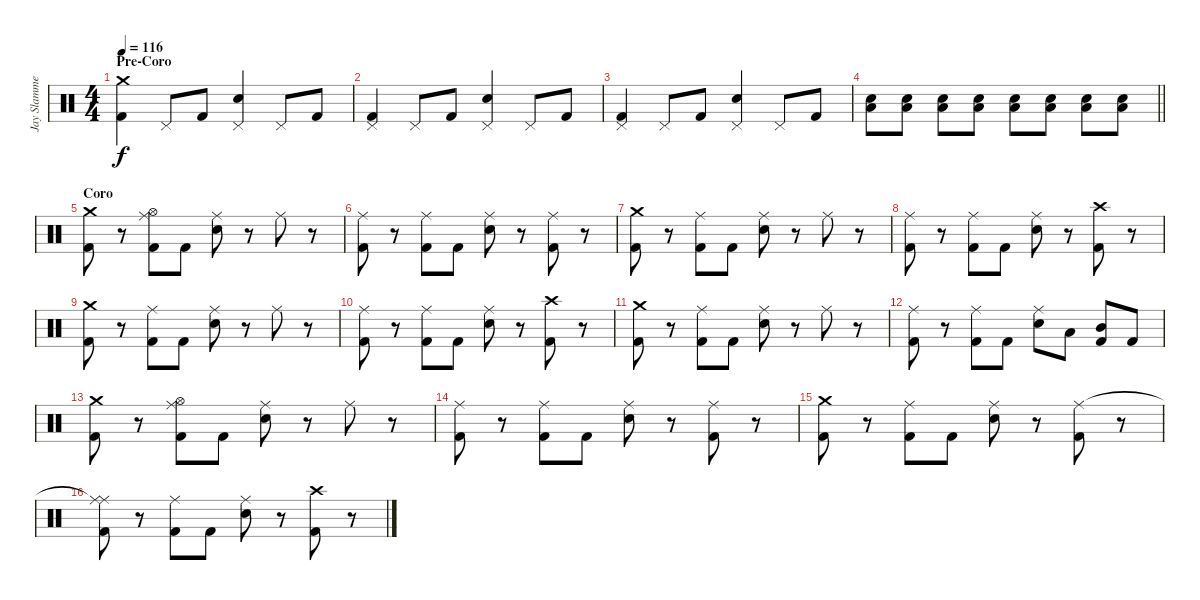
\track ("Jay Slammer " "Jay Slamme") {instrument percussion}
\staff {score}
\articulation defaults
\ts (4 4)
\section ("" "Pre-Coro")
\tempo 116
\clef neutral
\ks c
("Crash medium (hit)" "Kick (hit) 2").4{dy f} "Pedal Hi-Hat (hit)".8 "Kick (hit) 2".8 ("Pedal Hi-Hat (hit)" "Snare (hit) 2").4 "Pedal Hi-Hat (hit)".8 "Kick (hit) 2".8 |
("Pedal Hi-Hat (hit)" "Kick (hit) 2").4 "Pedal Hi-Hat (hit)".8 "Kick (hit) 2".8 ("Pedal Hi-Hat (hit)" "Snare (hit) 2").4 "Pedal Hi-Hat (hit)".8 "Kick (hit) 2".8 |
("Pedal Hi-Hat (hit)" "Kick (hit) 2").4 "Pedal Hi-Hat (hit)".8 "Kick (hit) 2".8 ("Pedal Hi-Hat (hit)" "Snare (hit) 2").4 "Pedal Hi-Hat (hit)".8 "Kick (hit) 2".8 |
\barLineRight lightlight
("Low Tom (hit)" "Snare (hit) 2").8 ("Low Tom (hit)" "Snare (hit) 2").8 ("Low Tom (hit)" "Snare (hit) 2").8 ("Low Tom (hit)" "Snare (hit) 2").8 ("Low Tom (hit)" "Snare (hit) 2").8 ("Low Tom (hit)" "Snare (hit) 2").8 ("Low Tom (hit)" "Snare (hit) 2").8 ("Low Tom (hit)" "Snare (hit) 2").8 |
\section ("" "Coro")
("Crash medium (hit)" "Kick (hit) 2").8 r.8 ("Hi-Hat (open)" "Ride (middle)" "Kick (hit) 2").8 "Kick (hit) 2".8 ("Ride (middle)" "Snare (hit) 2").8 r.8 "Ride (middle)".8 r.8 |
("Ride (middle)" "Kick (hit) 2").8 r.8 ("Ride (middle)" "Kick (hit) 2").8 "Kick (hit) 2".8 ("Ride (middle)" "Snare (hit) 2").8 r.8 ("Ride (middle)" "Kick (hit) 2").8 r.8 |
("Crash medium (hit)" "Kick (hit) 2").8 r.8 ("Ride (middle)" "Kick (hit) 2").8 "Kick (hit) 2".8 ("Ride (middle)" "Snare (hit) 2").8 r.8 "Ride (middle)".8 r.8 |
("Ride (middle)" "Kick (hit) 2").8 r.8 ("Ride (middle)" "Kick (hit) 2").8 "Kick (hit) 2".8 ("Ride (middle)" "Snare (hit) 2").8 r.8 ("Crash high (hit)" "Kick (hit) 2").8 r.8 |
("Crash medium (hit)" "Kick (hit) 2").8 r.8 ("Ride (middle)" "Kick (hit) 2").8 "Kick (hit) 2".8 ("Ride (middle)" "Snare (hit) 2").8 r.8 "Ride (middle)".8 r.8 |
("Ride (middle)" "Kick (hit) 2").8 r.8 ("Ride (middle)" "Kick (hit) 2").8 "Kick (hit) 2".8 ("Ride (middle)" "Snare (hit) 2").8 r.8 ("Crash high (hit)" "Kick (hit) 2").8 r.8 |
("Crash medium (hit)" "Kick (hit) 2").8 r.8 ("Ride (middle)" "Kick (hit) 2").8 "Kick (hit) 2".8 ("Ride (middle)" "Snare (hit) 2").8 r.8 "Ride (middle)".8 r.8 |
("Ride (middle)" "Kick (hit) 2").8 r.8 ("Ride (middle)" "Kick (hit) 2").8 "Kick (hit) 2".8 ("Ride (middle)" "Snare (hit) 2").8 "Low Tom (hit)".8 ("Mid Tom (hit)" "Kick (hit) 2").8 "Kick (hit) 2".8 |
("Crash medium (hit)" "Kick (hit) 2").8 r.8 ("Hi-Hat (open)" "Ride (middle)" "Kick (hit) 2").8 "Kick (hit) 2".8 ("Ride (middle)" "Snare (hit) 2").8 r.8 "Ride (middle)".8 r.8 |
("Ride (middle)" "Kick (hit) 2").8 r.8 ("Ride (middle)" "Kick (hit) 2").8 "Kick (hit) 2".8 ("Ride (middle)" "Snare (hit) 2").8 r.8 ("Ride (middle)" "Kick (hit) 2").8 r.8 |
("Crash medium (hit)" "Kick (hit) 2").8 r.8 ("Ride (middle)" "Kick (hit) 2").8 "Kick (hit) 2".8 ("Ride (middle)" "Snare (hit) 2").8 r.8 ("Ride (middle)" "Kick (hit) 2").8 r.8 |
("Ride (middle)"{t} "Ride (middle)" "Kick (hit) 2").8 r.8 ("Ride (middle)" "Kick (hit) 2").8 "Kick (hit) 2".8 ("Ride (middle)" "Snare (hit) 2").8 r.8 ("Crash high (hit)" "Kick (hit) 2").8 r.8
